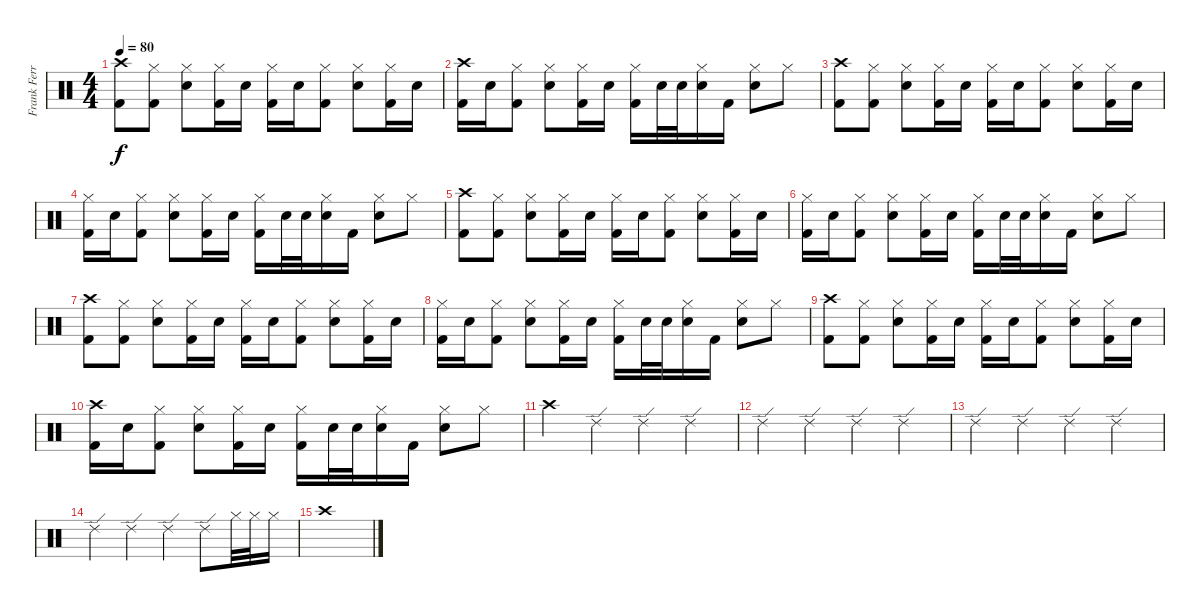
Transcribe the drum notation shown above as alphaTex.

\track ("Frank Ferrer" "Frank Ferr") {instrument percussion}
\staff {score}
\articulation defaults
\ts (4 4)
\tempo 80
\clef neutral
\ks c
("Crash high (hit)" "Kick (hit) 2").8{dy f} ("Hi-Hat (closed)" "Kick (hit) 2").8 ("Hi-Hat (closed)" "Snare (hit) 2").8 ("Hi-Hat (closed)" "Kick (hit) 2").16 "Snare (hit) 2".16 ("Hi-Hat (closed)" "Kick (hit) 2").16 "Snare (hit) 2".16 ("Hi-Hat (closed)" "Kick (hit) 2").8 ("Hi-Hat (closed)" "Snare (hit) 2").8 ("Hi-Hat (closed)" "Kick (hit) 2").16 "Snare (hit) 2".16 |
("Crash high (hit)" "Kick (hit) 2").16 "Snare (hit) 2".16 ("Hi-Hat (closed)" "Kick (hit) 2").8 ("Hi-Hat (closed)" "Snare (hit) 2").8 ("Hi-Hat (closed)" "Kick (hit) 2").16 "Snare (hit) 2".16 ("Hi-Hat (closed)" "Kick (hit) 2").16 "Snare (hit) 2".32 "Snare (hit) 2".32 ("Hi-Hat (closed)" "Snare (hit) 2").16 "Kick (hit) 2".16 ("Hi-Hat (closed)" "Snare (hit) 2").8 "Hi-Hat (closed)".8 |
("Crash high (hit)" "Kick (hit) 2").8 ("Hi-Hat (closed)" "Kick (hit) 2").8 ("Hi-Hat (closed)" "Snare (hit) 2").8 ("Hi-Hat (closed)" "Kick (hit) 2").16 "Snare (hit) 2".16 ("Hi-Hat (closed)" "Kick (hit) 2").16 "Snare (hit) 2".16 ("Hi-Hat (closed)" "Kick (hit) 2").8 ("Hi-Hat (closed)" "Snare (hit) 2").8 ("Hi-Hat (closed)" "Kick (hit) 2").16 "Snare (hit) 2".16 |
("Hi-Hat (closed)" "Kick (hit) 2").16 "Snare (hit) 2".16 ("Hi-Hat (closed)" "Kick (hit) 2").8 ("Hi-Hat (closed)" "Snare (hit) 2").8 ("Hi-Hat (closed)" "Kick (hit) 2").16 "Snare (hit) 2".16 ("Hi-Hat (closed)" "Kick (hit) 2").16 "Snare (hit) 2".32 "Snare (hit) 2".32 ("Hi-Hat (closed)" "Snare (hit) 2").16 "Kick (hit) 2".16 ("Hi-Hat (closed)" "Snare (hit) 2").8 "Hi-Hat (closed)".8 |
("Crash high (hit)" "Kick (hit) 2").8 ("Hi-Hat (closed)" "Kick (hit) 2").8 ("Hi-Hat (closed)" "Snare (hit) 2").8 ("Hi-Hat (closed)" "Kick (hit) 2").16 "Snare (hit) 2".16 ("Hi-Hat (closed)" "Kick (hit) 2").16 "Snare (hit) 2".16 ("Hi-Hat (closed)" "Kick (hit) 2").8 ("Hi-Hat (closed)" "Snare (hit) 2").8 ("Hi-Hat (closed)" "Kick (hit) 2").16 "Snare (hit) 2".16 |
("Hi-Hat (closed)" "Kick (hit) 2").16 "Snare (hit) 2".16 ("Hi-Hat (closed)" "Kick (hit) 2").8 ("Hi-Hat (closed)" "Snare (hit) 2").8 ("Hi-Hat (closed)" "Kick (hit) 2").16 "Snare (hit) 2".16 ("Hi-Hat (closed)" "Kick (hit) 2").16 "Snare (hit) 2".32 "Snare (hit) 2".32 ("Hi-Hat (closed)" "Snare (hit) 2").16 "Kick (hit) 2".16 ("Hi-Hat (closed)" "Snare (hit) 2").8 "Hi-Hat (closed)".8 |
("Crash high (hit)" "Kick (hit) 2").8 ("Hi-Hat (closed)" "Kick (hit) 2").8 ("Hi-Hat (closed)" "Snare (hit) 2").8 ("Hi-Hat (closed)" "Kick (hit) 2").16 "Snare (hit) 2".16 ("Hi-Hat (closed)" "Kick (hit) 2").16 "Snare (hit) 2".16 ("Hi-Hat (closed)" "Kick (hit) 2").8 ("Hi-Hat (closed)" "Snare (hit) 2").8 ("Hi-Hat (closed)" "Kick (hit) 2").16 "Snare (hit) 2".16 |
("Hi-Hat (closed)" "Kick (hit) 2").16 "Snare (hit) 2".16 ("Hi-Hat (closed)" "Kick (hit) 2").8 ("Hi-Hat (closed)" "Snare (hit) 2").8 ("Hi-Hat (closed)" "Kick (hit) 2").16 "Snare (hit) 2".16 ("Hi-Hat (closed)" "Kick (hit) 2").16 "Snare (hit) 2".32 "Snare (hit) 2".32 ("Hi-Hat (closed)" "Snare (hit) 2").16 "Kick (hit) 2".16 ("Hi-Hat (closed)" "Snare (hit) 2").8 "Hi-Hat (closed)".8 |
("Crash high (hit)" "Kick (hit) 2").8 ("Hi-Hat (closed)" "Kick (hit) 2").8 ("Hi-Hat (closed)" "Snare (hit) 2").8 ("Hi-Hat (closed)" "Kick (hit) 2").16 "Snare (hit) 2".16 ("Hi-Hat (closed)" "Kick (hit) 2").16 "Snare (hit) 2".16 ("Hi-Hat (closed)" "Kick (hit) 2").8 ("Hi-Hat (closed)" "Snare (hit) 2").8 ("Hi-Hat (closed)" "Kick (hit) 2").16 "Snare (hit) 2".16 |
("Crash high (hit)" "Kick (hit) 2").16 "Snare (hit) 2".16 ("Hi-Hat (closed)" "Kick (hit) 2").8 ("Hi-Hat (closed)" "Snare (hit) 2").8 ("Hi-Hat (closed)" "Kick (hit) 2").16 "Snare (hit) 2".16 ("Hi-Hat (closed)" "Kick (hit) 2").16 "Snare (hit) 2".32 "Snare (hit) 2".32 ("Hi-Hat (closed)" "Snare (hit) 2").16 "Kick (hit) 2".16 ("Hi-Hat (closed)" "Snare (hit) 2").8 "Hi-Hat (closed)".8 |
"Crash high (hit)".4 "Ride (edge) 2".4 "Ride (edge) 2".4 "Ride (edge) 2".4 |
"Ride (edge) 2".4 "Ride (edge) 2".4 "Ride (edge) 2".4 "Ride (edge) 2".4 |
"Ride (edge) 2".4 "Ride (edge) 2".4 "Ride (edge) 2".4 "Ride (edge) 2".4 |
"Ride (edge) 2".4 "Ride (edge) 2".4 "Ride (edge) 2".4 "Ride (edge) 2".8 "Hi-Hat (closed)".32 "Hi-Hat (closed)".32 "Hi-Hat (closed)".16 |
"Crash high (hit)".1
